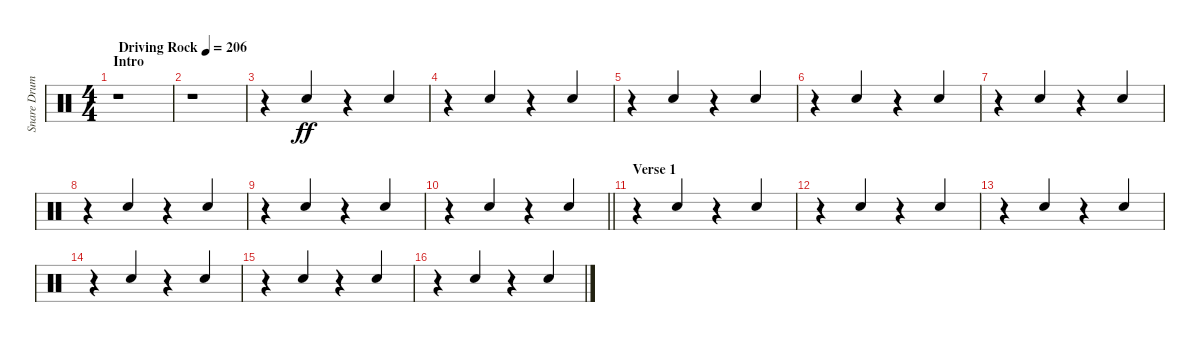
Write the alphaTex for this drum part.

\track ("Snare Drum" "Snare Drum") {instrument percussion}
\staff {score}
\articulation defaults
\ts (4 4)
\section ("" "Intro")
\tempo (206 "Driving Rock")
\clef neutral
\ks c
r.1{dy ff} |
r.1 |
r.4 "Electric Snare (hit)".4{beam Up} r.4 "Electric Snare (hit)".4{beam Up} |
r.4 "Electric Snare (hit)".4{beam Up} r.4 "Electric Snare (hit)".4{beam Up} |
r.4 "Electric Snare (hit)".4{beam Up} r.4 "Electric Snare (hit)".4{beam Up} |
r.4 "Electric Snare (hit)".4{beam Up} r.4 "Electric Snare (hit)".4{beam Up} |
r.4 "Electric Snare (hit)".4{beam Up} r.4 "Electric Snare (hit)".4{beam Up} |
r.4 "Electric Snare (hit)".4{beam Up} r.4 "Electric Snare (hit)".4{beam Up} |
r.4 "Electric Snare (hit)".4{beam Up} r.4 "Electric Snare (hit)".4{beam Up} |
\barLineRight lightlight
r.4 "Electric Snare (hit)".4{beam Up} r.4 "Electric Snare (hit)".4{beam Up} |
\section ("" "Verse 1")
r.4 "Electric Snare (hit)".4{beam Up} r.4 "Electric Snare (hit)".4{beam Up} |
r.4 "Electric Snare (hit)".4{beam Up} r.4 "Electric Snare (hit)".4{beam Up} |
r.4 "Electric Snare (hit)".4{beam Up} r.4 "Electric Snare (hit)".4{beam Up} |
r.4 "Electric Snare (hit)".4{beam Up} r.4 "Electric Snare (hit)".4{beam Up} |
r.4 "Electric Snare (hit)".4{beam Up} r.4 "Electric Snare (hit)".4{beam Up} |
r.4 "Electric Snare (hit)".4{beam Up} r.4 "Electric Snare (hit)".4{beam Up}
